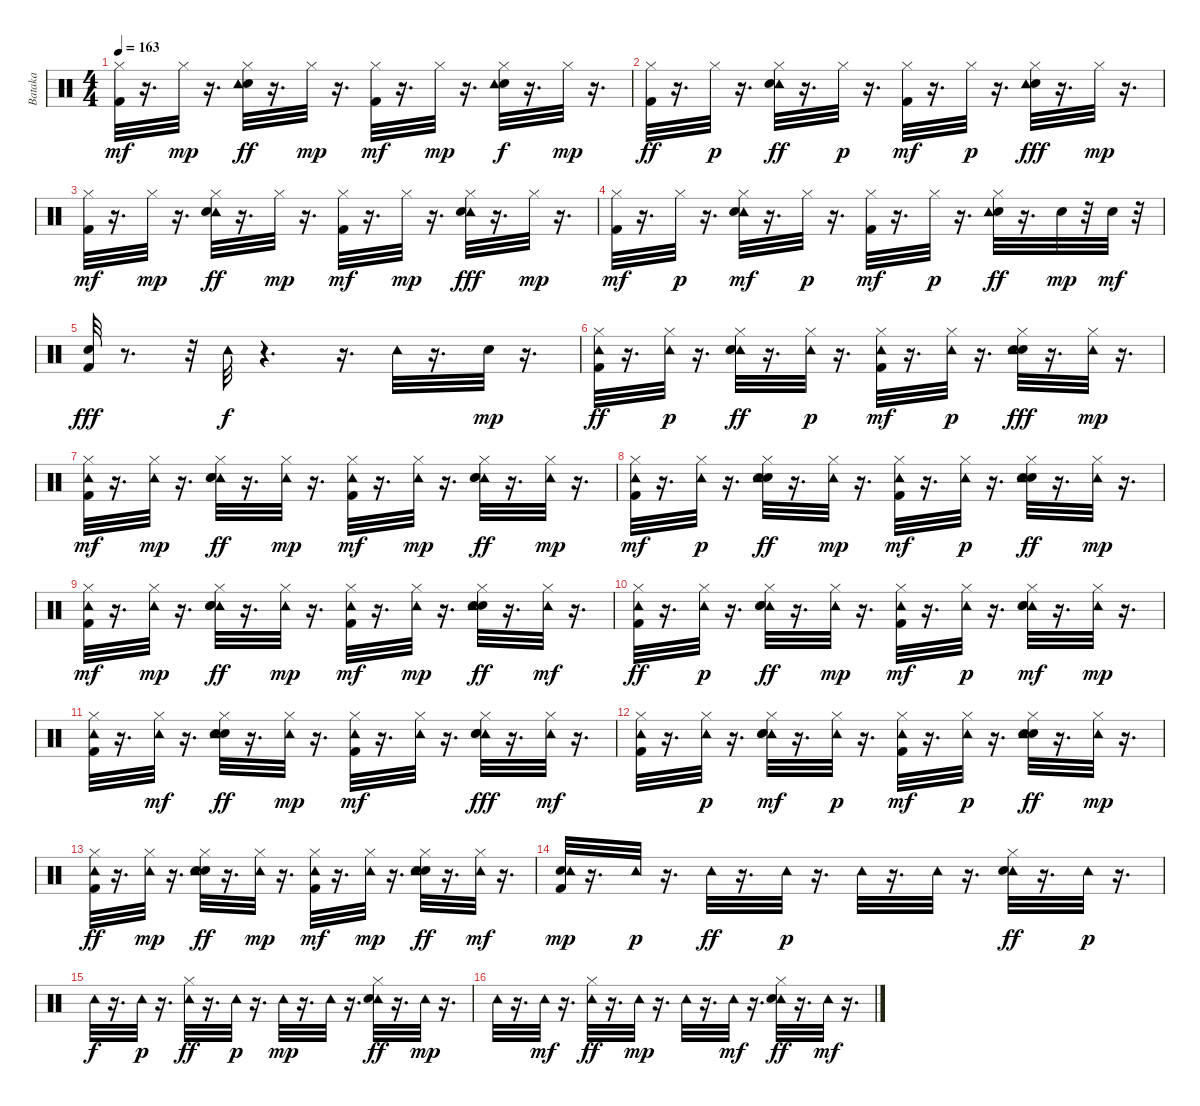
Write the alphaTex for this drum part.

\track ("Bataka" "Bataka") {instrument percussion}
\staff {score}
\articulation defaults
\ts (4 4)
\tempo 163
\clef neutral
\ks c
("Kick (hit) 2" "Hi-Hat (closed)").32{dy mf} r.16{d} "Hi-Hat (closed)".32{dy mp} r.16{d} ("Electric Snare (hit)" "Tambourine (hit)" "Hi-Hat (closed)").32{dy ff} r.16{d} "Hi-Hat (closed)".32{dy mp} r.16{d} ("Kick (hit) 2" "Hi-Hat (closed)").32{dy mf} r.16{d} "Hi-Hat (closed)".32{dy mp} r.16{d} ("Electric Snare (hit)" "Tambourine (hit)" "Hi-Hat (closed)").32{dy f} r.16{d} "Hi-Hat (closed)".32{dy mp} r.16{d} |
("Kick (hit) 2" "Hi-Hat (closed)").32{dy ff} r.16{d} "Hi-Hat (closed)".32{dy p} r.16{d} ("Tambourine (hit)" "Hi-Hat (closed)" "Electric Snare (hit)").32{dy ff} r.16{d} "Hi-Hat (closed)".32{dy p} r.16{d} ("Hi-Hat (closed)" "Kick (hit) 2").32{dy mf} r.16{d} "Hi-Hat (closed)".32{dy p} r.16{d} ("Hi-Hat (closed)" "Electric Snare (hit)" "Tambourine (hit)").32{dy fff} r.16{d} "Hi-Hat (closed)".32{dy mp} r.16{d} |
("Kick (hit) 2" "Hi-Hat (closed)").32{dy mf} r.16{d} "Hi-Hat (closed)".32{dy mp} r.16{d} ("Hi-Hat (closed)" "Tambourine (hit)" "Electric Snare (hit)").32{dy ff} r.16{d} "Hi-Hat (closed)".32{dy mp} r.16{d} ("Kick (hit) 2" "Hi-Hat (closed)").32{dy mf} r.16{d} "Hi-Hat (closed)".32{dy mp} r.16{d} ("Hi-Hat (closed)" "Tambourine (hit)" "Electric Snare (hit)").32{dy fff} r.16{d} "Hi-Hat (closed)".32{dy mp} r.16{d} |
("Hi-Hat (closed)" "Kick (hit) 2").32{dy mf} r.16{d} "Hi-Hat (closed)".32{dy p} r.16{d} ("Tambourine (hit)" "Electric Snare (hit)" "Hi-Hat (closed)").32{dy mf} r.16{d} "Hi-Hat (closed)".32{dy p} r.16{d} ("Hi-Hat (closed)" "Kick (hit) 2").32{dy mf} r.16{d} "Hi-Hat (closed)".32{dy p} r.16{d} ("Electric Snare (hit)" "Hi-Hat (closed)" "Tambourine (hit)").32{dy ff} r.16{d} "Electric Snare (hit)".32{dy mp} r.32 "Electric Snare (hit)".32{dy mf} r.32 |
("Kick (hit) 2" "Electric Snare (hit)").32{dy fff} r.8{d} r.32 "Tambourine (hit)".32{dy f} r.4{d} r.16{d} "Tambourine (hit)".32 r.16{d} "Electric Snare (hit)".32{dy mp} r.16{d} |
("Tambourine (hit)" "Kick (hit) 2" "Hi-Hat (closed)").32{dy ff} r.16{d} ("Tambourine (hit)" "Hi-Hat (closed)").32{dy p} r.16{d} ("Hi-Hat (closed)" "Tambourine (hit)" "Electric Snare (hit)" "Hand Clap (hit)").32{dy ff} r.16{d} ("Hi-Hat (closed)" "Tambourine (hit)").32{dy p} r.16{d} ("Hi-Hat (closed)" "Tambourine (hit)" "Kick (hit) 2").32{dy mf} r.16{d} ("Tambourine (hit)" "Hi-Hat (closed)").32{dy p} r.16{d} ("Hand Clap (hit)" "Hi-Hat (closed)" "Tambourine (hit)" "Electric Snare (hit)").32{dy fff} r.16{d} ("Tambourine (hit)" "Hi-Hat (closed)").32{dy mp} r.16{d} |
("Tambourine (hit)" "Kick (hit) 2" "Hi-Hat (closed)").32{dy mf} r.16{d} ("Tambourine (hit)" "Hi-Hat (closed)").32{dy mp} r.16{d} ("Hi-Hat (closed)" "Tambourine (hit)" "Hand Clap (hit)" "Electric Snare (hit)").32{dy ff} r.16{d} ("Tambourine (hit)" "Hi-Hat (closed)").32{dy mp} r.16{d} ("Kick (hit) 2" "Tambourine (hit)" "Hi-Hat (closed)").32{dy mf} r.16{d} ("Tambourine (hit)" "Hi-Hat (closed)").32{dy mp} r.16{d} ("Tambourine (hit)" "Electric Snare (hit)" "Hi-Hat (closed)" "Hand Clap (hit)").32{dy ff} r.16{d} ("Tambourine (hit)" "Hi-Hat (closed)").32{dy mp} r.16{d} |
("Tambourine (hit)" "Kick (hit) 2" "Hi-Hat (closed)").32{dy mf} r.16{d} ("Tambourine (hit)" "Hi-Hat (closed)").32{dy p} r.16{d} ("Hand Clap (hit)" "Electric Snare (hit)" "Hi-Hat (closed)" "Tambourine (hit)").32{dy ff} r.16{d} ("Hi-Hat (closed)" "Tambourine (hit)").32{dy mp} r.16{d} ("Tambourine (hit)" "Kick (hit) 2" "Hi-Hat (closed)").32{dy mf} r.16{d} ("Tambourine (hit)" "Hi-Hat (closed)").32{dy p} r.16{d} ("Hand Clap (hit)" "Hi-Hat (closed)" "Electric Snare (hit)" "Tambourine (hit)").32{dy ff} r.16{d} ("Tambourine (hit)" "Hi-Hat (closed)").32{dy mp} r.16{d} |
("Tambourine (hit)" "Kick (hit) 2" "Hi-Hat (closed)").32{dy mf} r.16{d} ("Tambourine (hit)" "Hi-Hat (closed)").32{dy mp} r.16{d} ("Tambourine (hit)" "Hand Clap (hit)" "Hi-Hat (closed)" "Electric Snare (hit)").32{dy ff} r.16{d} ("Tambourine (hit)" "Hi-Hat (closed)").32{dy mp} r.16{d} ("Tambourine (hit)" "Kick (hit) 2" "Hi-Hat (closed)").32{dy mf} r.16{d} ("Hi-Hat (closed)" "Tambourine (hit)").32{dy mp} r.16{d} ("Hi-Hat (closed)" "Hand Clap (hit)" "Electric Snare (hit)" "Tambourine (hit)").32{dy ff} r.16{d} ("Hi-Hat (closed)" "Tambourine (hit)").32{dy mf} r.16{d} |
("Tambourine (hit)" "Hi-Hat (closed)" "Kick (hit) 2").32{dy ff} r.16{d} ("Tambourine (hit)" "Hi-Hat (closed)").32{dy p} r.16{d} ("Hi-Hat (closed)" "Tambourine (hit)" "Electric Snare (hit)" "Hand Clap (hit)").32{dy ff} r.16{d} ("Hi-Hat (closed)" "Tambourine (hit)").32{dy mp} r.16{d} ("Tambourine (hit)" "Hi-Hat (closed)" "Kick (hit) 2").32{dy mf} r.16{d} ("Tambourine (hit)" "Hi-Hat (closed)").32{dy p} r.16{d} ("Tambourine (hit)" "Hand Clap (hit)" "Electric Snare (hit)" "Hi-Hat (closed)").32{dy mf} r.16{d} ("Tambourine (hit)" "Hi-Hat (closed)").32{dy mp} r.16{d} |
("Kick (hit) 2" "Hi-Hat (closed)" "Tambourine (hit)").32 r.16{d} ("Hi-Hat (closed)" "Tambourine (hit)").32{dy mf} r.16{d} ("Hi-Hat (closed)" "Hand Clap (hit)" "Tambourine (hit)" "Electric Snare (hit)").32{dy ff} r.16{d} ("Hi-Hat (closed)" "Tambourine (hit)").32{dy mp} r.16{d} ("Hi-Hat (closed)" "Kick (hit) 2" "Tambourine (hit)").32{dy mf} r.16{d} ("Hi-Hat (closed)" "Tambourine (hit)").32 r.16{d} ("Tambourine (hit)" "Hi-Hat (closed)" "Hand Clap (hit)" "Electric Snare (hit)").32{dy fff} r.16{d} ("Hi-Hat (closed)" "Tambourine (hit)").32{dy mf} r.16{d} |
("Kick (hit) 2" "Hi-Hat (closed)" "Tambourine (hit)").32 r.16{d} ("Tambourine (hit)" "Hi-Hat (closed)").32{dy p} r.16{d} ("Tambourine (hit)" "Electric Snare (hit)" "Hand Clap (hit)" "Hi-Hat (closed)").32{dy mf} r.16{d} ("Tambourine (hit)" "Hi-Hat (closed)").32{dy p} r.16{d} ("Kick (hit) 2" "Tambourine (hit)" "Hi-Hat (closed)").32{dy mf} r.16{d} ("Tambourine (hit)" "Hi-Hat (closed)").32{dy p} r.16{d} ("Electric Snare (hit)" "Tambourine (hit)" "Hi-Hat (closed)" "Hand Clap (hit)").32{dy ff} r.16{d} ("Tambourine (hit)" "Hi-Hat (closed)").32{dy mp} r.16{d} |
("Hi-Hat (closed)" "Tambourine (hit)" "Kick (hit) 2").32{dy ff} r.16{d} ("Hi-Hat (closed)" "Tambourine (hit)").32{dy mp} r.16{d} ("Hand Clap (hit)" "Electric Snare (hit)" "Hi-Hat (closed)" "Tambourine (hit)").32{dy ff} r.16{d} ("Tambourine (hit)" "Hi-Hat (closed)").32{dy mp} r.16{d} ("Hi-Hat (closed)" "Kick (hit) 2" "Tambourine (hit)").32{dy mf} r.16{d} ("Hi-Hat (closed)" "Tambourine (hit)").32{dy mp} r.16{d} ("Hand Clap (hit)" "Tambourine (hit)" "Electric Snare (hit)" "Hi-Hat (closed)").32{dy ff} r.16{d} ("Hi-Hat (closed)" "Tambourine (hit)").32{dy mf} r.16{d} |
("Kick (hit) 2" "Electric Snare (hit)" "Tambourine (hit)").32{dy mp} r.16{d} "Tambourine (hit)".32{dy p} r.16{d} "Tambourine (hit)".32{dy ff} r.16{d} "Tambourine (hit)".32{dy p} r.16{d} "Tambourine (hit)".32 r.16{d} "Tambourine (hit)".32 r.16{d} ("Tambourine (hit)" "Hi-Hat (closed)" "Hand Clap (hit)").32{dy ff} r.16{d} "Tambourine (hit)".32{dy p} r.16{d} |
"Tambourine (hit)".32{dy f} r.16{d} "Tambourine (hit)".32{dy p} r.16{d} ("Hi-Hat (closed)" "Tambourine (hit)").32{dy ff} r.16{d} "Tambourine (hit)".32{dy p} r.16{d} "Tambourine (hit)".32{dy mp} r.16{d} "Tambourine (hit)".32 r.16{d} ("Tambourine (hit)" "Hi-Hat (closed)" "Hand Clap (hit)").32{dy ff} r.16{d} "Tambourine (hit)".32{dy mp} r.16{d} |
"Tambourine (hit)".32 r.16{d} "Tambourine (hit)".32{dy mf} r.16{d} ("Hi-Hat (closed)" "Tambourine (hit)").32{dy ff} r.16{d} "Tambourine (hit)".32{dy mp} r.16{d} "Tambourine (hit)".32 r.16{d} "Tambourine (hit)".32{dy mf} r.16{d} ("Tambourine (hit)" "Hand Clap (hit)" "Hi-Hat (closed)").32{dy ff} r.16{d} "Tambourine (hit)".32{dy mf} r.16{d}
